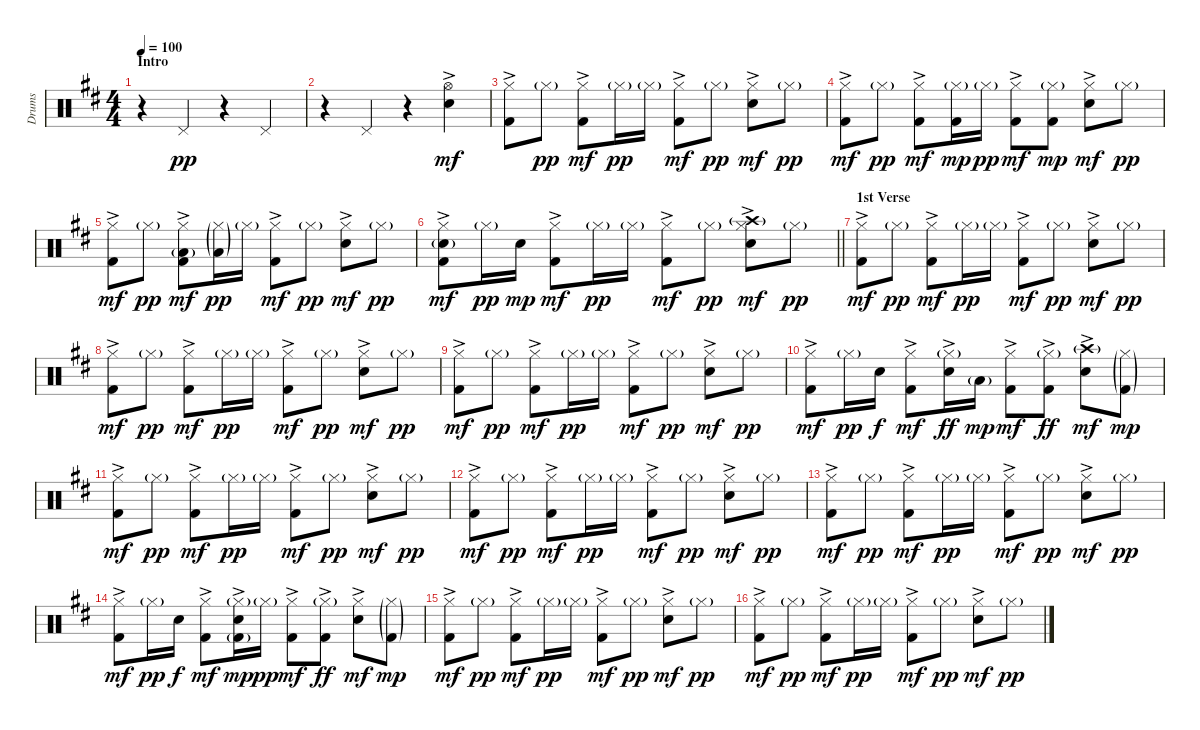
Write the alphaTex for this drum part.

\track ("Drums" "Drums") {instrument percussion}
\staff {score}
\articulation defaults
\ts (4 4)
\section ("" "Intro")
\tempo 100
\clef neutral
\ks d
r.4{dy pp} "Pedal Hi-Hat (hit)".4 r.4 "Pedal Hi-Hat (hit)".4 |
r.4 "Pedal Hi-Hat (hit)".4 r.4 ("Hi-Hat (open)" "Snare (hit) 2"{ac}).4{dy mf} |
("Hi-Hat (closed)" "Kick (hit) 2"{ac}).8 "Hi-Hat (closed)"{g}.8{dy pp} ("Hi-Hat (closed)"{ac} "Kick (hit) 2"{ac}).8{dy mf} "Hi-Hat (closed)"{g}.16{dy pp} "Hi-Hat (closed)"{g}.16 ("Hi-Hat (closed)" "Kick (hit) 2"{ac}).8{dy mf} "Hi-Hat (closed)"{g}.8{dy pp} ("Hi-Hat (closed)"{ac} "Snare (hit) 2"{ac}).8{dy mf} "Hi-Hat (closed)"{g}.8{dy pp} |
("Hi-Hat (closed)" "Kick (hit) 2"{ac}).8{dy mf} "Hi-Hat (closed)"{g}.8{dy pp} ("Hi-Hat (closed)"{ac} "Kick (hit) 2"{ac}).8{dy mf} ("Hi-Hat (closed)"{g} "Kick (hit) 2").16{dy mp} "Hi-Hat (closed)"{g}.16{dy pp} ("Hi-Hat (closed)" "Kick (hit) 2"{ac}).8{dy mf} ("Hi-Hat (closed)"{g} "Kick (hit) 2").8{dy mp} ("Hi-Hat (closed)"{ac} "Snare (hit) 2"{ac}).8{dy mf} "Hi-Hat (closed)"{g}.8{dy pp} |
("Hi-Hat (closed)" "Kick (hit) 2"{ac}).8{dy mf} "Hi-Hat (closed)"{g}.8{dy pp} ("Hi-Hat (closed)"{ac} "Low Tom (hit)"{g} "Kick (hit) 2"{ac}).8{dy mf} ("Hi-Hat (closed)"{g} "Low Floor Tom (hit)"{g}).16{dy pp} "Hi-Hat (closed)"{g}.16 ("Hi-Hat (closed)" "Kick (hit) 2"{ac}).8{dy mf} "Hi-Hat (closed)"{g}.8{dy pp} ("Hi-Hat (closed)"{ac} "Snare (hit) 2"{ac}).8{dy mf} "Hi-Hat (closed)"{g}.8{dy pp} |
\barLineRight lightlight
("Hi-Hat (closed)" "Snare (hit) 2"{g} "Kick (hit) 2"{ac}).8{dy mf} "Hi-Hat (closed)"{g}.16{dy pp} "Snare (hit) 2".16{dy mp} ("Hi-Hat (closed)"{ac} "Kick (hit) 2"{ac}).8{dy mf} "Hi-Hat (closed)"{g}.16{dy pp} "Hi-Hat (closed)"{g}.16 ("Hi-Hat (closed)" "Kick (hit) 2"{ac}).8{dy mf} "Hi-Hat (closed)"{g}.8{dy pp} ("Hi-Hat (closed)"{ac} "Crash high (hit)"{g} "Snare (hit) 2"{ac}).8{dy mf} "Hi-Hat (closed)"{g}.8{dy pp} |
\section ("" "1st Verse")
("Hi-Hat (closed)" "Kick (hit) 2"{ac}).8{dy mf} "Hi-Hat (closed)"{g}.8{dy pp} ("Hi-Hat (closed)"{ac} "Kick (hit) 2"{ac}).8{dy mf} "Hi-Hat (closed)"{g}.16{dy pp} "Hi-Hat (closed)"{g}.16 ("Hi-Hat (closed)" "Kick (hit) 2"{ac}).8{dy mf} "Hi-Hat (closed)"{g}.8{dy pp} ("Hi-Hat (closed)"{ac} "Snare (hit) 2"{ac}).8{dy mf} "Hi-Hat (closed)"{g}.8{dy pp} |
("Hi-Hat (closed)" "Kick (hit) 2"{ac}).8{dy mf} "Hi-Hat (closed)"{g}.8{dy pp} ("Hi-Hat (closed)"{ac} "Kick (hit) 2"{ac}).8{dy mf} "Hi-Hat (closed)"{g}.16{dy pp} "Hi-Hat (closed)"{g}.16 ("Hi-Hat (closed)" "Kick (hit) 2"{ac}).8{dy mf} "Hi-Hat (closed)"{g}.8{dy pp} ("Hi-Hat (closed)"{ac} "Snare (hit) 2"{ac}).8{dy mf} "Hi-Hat (closed)"{g}.8{dy pp} |
("Hi-Hat (closed)" "Kick (hit) 2"{ac}).8{dy mf} "Hi-Hat (closed)"{g}.8{dy pp} ("Hi-Hat (closed)"{ac} "Kick (hit) 2"{ac}).8{dy mf} "Hi-Hat (closed)"{g}.16{dy pp} "Hi-Hat (closed)"{g}.16 ("Hi-Hat (closed)" "Kick (hit) 2"{ac}).8{dy mf} "Hi-Hat (closed)"{g}.8{dy pp} ("Hi-Hat (closed)"{ac} "Snare (hit) 2"{ac}).8{dy mf} "Hi-Hat (closed)"{g}.8{dy pp} |
("Hi-Hat (closed)" "Kick (hit) 2"{ac}).8{dy mf} "Hi-Hat (closed)"{g}.16{dy pp} "Snare (hit) 2".16{dy f} ("Hi-Hat (closed)"{ac} "Kick (hit) 2"{ac}).8{dy mf} ("Hi-Hat (closed)"{g} "Snare (hit) 2"{ac}).16{dy ff} "Low Tom (hit)"{g}.16{dy mp} ("Hi-Hat (closed)" "Kick (hit) 2"{ac}).8{dy mf} ("Hi-Hat (closed)"{g} "Kick (hit) 2"{ac}).8{dy ff} ("Crash high (hit)"{g} "Snare (hit) 2"{ac}).8{dy mf} ("Hi-Hat (closed)"{g} "Kick (hit) 2"{g}).8{dy mp} |
("Hi-Hat (closed)" "Kick (hit) 2"{ac}).8{dy mf} "Hi-Hat (closed)"{g}.8{dy pp} ("Hi-Hat (closed)"{ac} "Kick (hit) 2"{ac}).8{dy mf} "Hi-Hat (closed)"{g}.16{dy pp} "Hi-Hat (closed)"{g}.16 ("Hi-Hat (closed)" "Kick (hit) 2"{ac}).8{dy mf} "Hi-Hat (closed)"{g}.8{dy pp} ("Hi-Hat (closed)"{ac} "Snare (hit) 2"{ac}).8{dy mf} "Hi-Hat (closed)"{g}.8{dy pp} |
("Hi-Hat (closed)" "Kick (hit) 2"{ac}).8{dy mf} "Hi-Hat (closed)"{g}.8{dy pp} ("Hi-Hat (closed)"{ac} "Kick (hit) 2"{ac}).8{dy mf} "Hi-Hat (closed)"{g}.16{dy pp} "Hi-Hat (closed)"{g}.16 ("Hi-Hat (closed)" "Kick (hit) 2"{ac}).8{dy mf} "Hi-Hat (closed)"{g}.8{dy pp} ("Hi-Hat (closed)"{ac} "Snare (hit) 2"{ac}).8{dy mf} "Hi-Hat (closed)"{g}.8{dy pp} |
("Hi-Hat (closed)" "Kick (hit) 2"{ac}).8{dy mf} "Hi-Hat (closed)"{g}.8{dy pp} ("Hi-Hat (closed)"{ac} "Kick (hit) 2"{ac}).8{dy mf} "Hi-Hat (closed)"{g}.16{dy pp} "Hi-Hat (closed)"{g}.16 ("Hi-Hat (closed)" "Kick (hit) 2"{ac}).8{dy mf} "Hi-Hat (closed)"{g}.8{dy pp} ("Hi-Hat (closed)"{ac} "Snare (hit) 2"{ac}).8{dy mf} "Hi-Hat (closed)"{g}.8{dy pp} |
("Hi-Hat (closed)" "Kick (hit) 2"{ac}).8{dy mf} "Hi-Hat (closed)"{g}.16{dy pp} "Snare (hit) 2".16{dy f} ("Hi-Hat (closed)"{ac} "Kick (hit) 2"{ac}).8{dy mf} ("Hi-Hat (closed)"{g} "Snare (hit) 2"{ac} "Kick (hit) 2"{g}).16{dy mp} "Hi-Hat (closed)"{g}.16{dy pp} ("Hi-Hat (closed)" "Kick (hit) 2"{ac}).8{dy mf} ("Hi-Hat (closed)"{g} "Kick (hit) 2"{ac}).8{dy ff} ("Hi-Hat (closed)"{ac} "Snare (hit) 2"{ac}).8{dy mf} ("Hi-Hat (closed)"{g} "Kick (hit) 2"{g}).8{dy mp} |
("Hi-Hat (closed)" "Kick (hit) 2"{ac}).8{dy mf} "Hi-Hat (closed)"{g}.8{dy pp} ("Hi-Hat (closed)"{ac} "Kick (hit) 2"{ac}).8{dy mf} "Hi-Hat (closed)"{g}.16{dy pp} "Hi-Hat (closed)"{g}.16 ("Hi-Hat (closed)" "Kick (hit) 2"{ac}).8{dy mf} "Hi-Hat (closed)"{g}.8{dy pp} ("Hi-Hat (closed)"{ac} "Snare (hit) 2"{ac}).8{dy mf} "Hi-Hat (closed)"{g}.8{dy pp} |
("Hi-Hat (closed)" "Kick (hit) 2"{ac}).8{dy mf} "Hi-Hat (closed)"{g}.8{dy pp} ("Hi-Hat (closed)"{ac} "Kick (hit) 2"{ac}).8{dy mf} "Hi-Hat (closed)"{g}.16{dy pp} "Hi-Hat (closed)"{g}.16 ("Hi-Hat (closed)" "Kick (hit) 2"{ac}).8{dy mf} "Hi-Hat (closed)"{g}.8{dy pp} ("Hi-Hat (closed)"{ac} "Snare (hit) 2"{ac}).8{dy mf} "Hi-Hat (closed)"{g}.8{dy pp}
